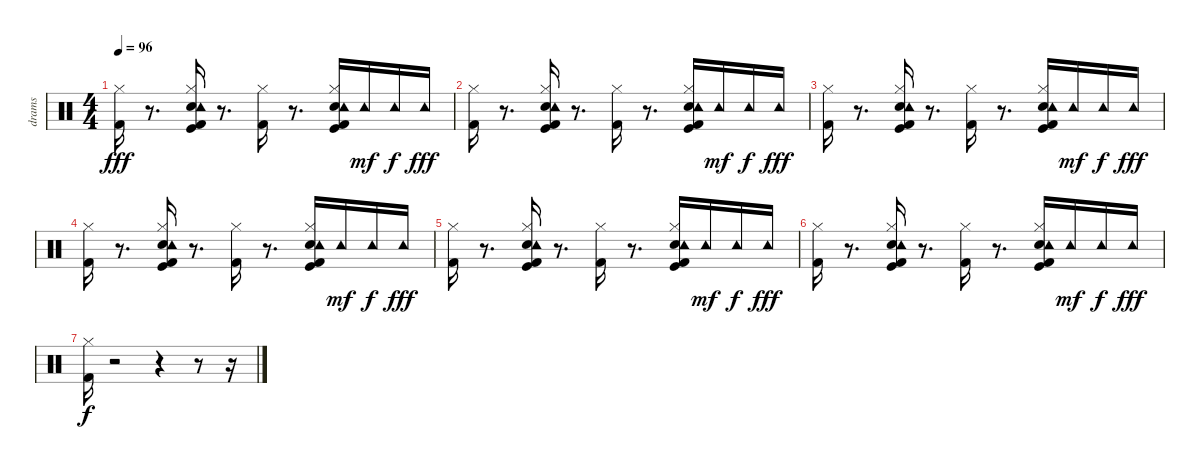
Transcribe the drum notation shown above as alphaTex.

\track ("drams" "drams") {instrument percussion}
\staff {score}
\articulation defaults
\ts (4 4)
\tempo 96
\clef neutral
\ks c
("Kick (hit) 2" "Hi-Hat (closed)").16{dy fff} r.8{d} ("Kick (hit)" "Kick (hit) 2" "Electric Snare (hit)" "Hi-Hat (closed)" "Tambourine (hit)").16 r.8{d} ("Kick (hit) 2" "Hi-Hat (closed)").16 r.8{d} ("Kick (hit)" "Kick (hit) 2" "Electric Snare (hit)" "Hi-Hat (closed)" "Tambourine (hit)").16 "Tambourine (hit)".16{dy mf} "Tambourine (hit)".16{dy f} "Tambourine (hit)".16{dy fff} |
("Kick (hit) 2" "Hi-Hat (closed)").16 r.8{d} ("Kick (hit)" "Kick (hit) 2" "Electric Snare (hit)" "Hi-Hat (closed)" "Tambourine (hit)").16 r.8{d} ("Kick (hit) 2" "Hi-Hat (closed)").16 r.8{d} ("Kick (hit)" "Kick (hit) 2" "Electric Snare (hit)" "Hi-Hat (closed)" "Tambourine (hit)").16 "Tambourine (hit)".16{dy mf} "Tambourine (hit)".16{dy f} "Tambourine (hit)".16{dy fff} |
("Kick (hit) 2" "Hi-Hat (closed)").16 r.8{d} ("Kick (hit)" "Kick (hit) 2" "Electric Snare (hit)" "Hi-Hat (closed)" "Tambourine (hit)").16 r.8{d} ("Kick (hit) 2" "Hi-Hat (closed)").16 r.8{d} ("Kick (hit)" "Kick (hit) 2" "Electric Snare (hit)" "Hi-Hat (closed)" "Tambourine (hit)").16 "Tambourine (hit)".16{dy mf} "Tambourine (hit)".16{dy f} "Tambourine (hit)".16{dy fff} |
("Kick (hit) 2" "Hi-Hat (closed)").16 r.8{d} ("Kick (hit)" "Kick (hit) 2" "Electric Snare (hit)" "Hi-Hat (closed)" "Tambourine (hit)").16 r.8{d} ("Kick (hit) 2" "Hi-Hat (closed)").16 r.8{d} ("Kick (hit)" "Kick (hit) 2" "Electric Snare (hit)" "Hi-Hat (closed)" "Tambourine (hit)").16 "Tambourine (hit)".16{dy mf} "Tambourine (hit)".16{dy f} "Tambourine (hit)".16{dy fff} |
("Kick (hit) 2" "Hi-Hat (closed)").16 r.8{d} ("Kick (hit)" "Kick (hit) 2" "Electric Snare (hit)" "Hi-Hat (closed)" "Tambourine (hit)").16 r.8{d} ("Kick (hit) 2" "Hi-Hat (closed)").16 r.8{d} ("Kick (hit)" "Kick (hit) 2" "Electric Snare (hit)" "Hi-Hat (closed)" "Tambourine (hit)").16 "Tambourine (hit)".16{dy mf} "Tambourine (hit)".16{dy f} "Tambourine (hit)".16{dy fff} |
("Kick (hit) 2" "Hi-Hat (closed)").16 r.8{d} ("Kick (hit)" "Kick (hit) 2" "Electric Snare (hit)" "Hi-Hat (closed)" "Tambourine (hit)").16 r.8{d} ("Kick (hit) 2" "Hi-Hat (closed)").16 r.8{d} ("Kick (hit)" "Kick (hit) 2" "Electric Snare (hit)" "Hi-Hat (closed)" "Tambourine (hit)").16 "Tambourine (hit)".16{dy mf} "Tambourine (hit)".16{dy f} "Tambourine (hit)".16{dy fff} |
("Kick (hit) 2" "Hi-Hat (closed)").16{dy f} r.2 r.4 r.8 r.16
